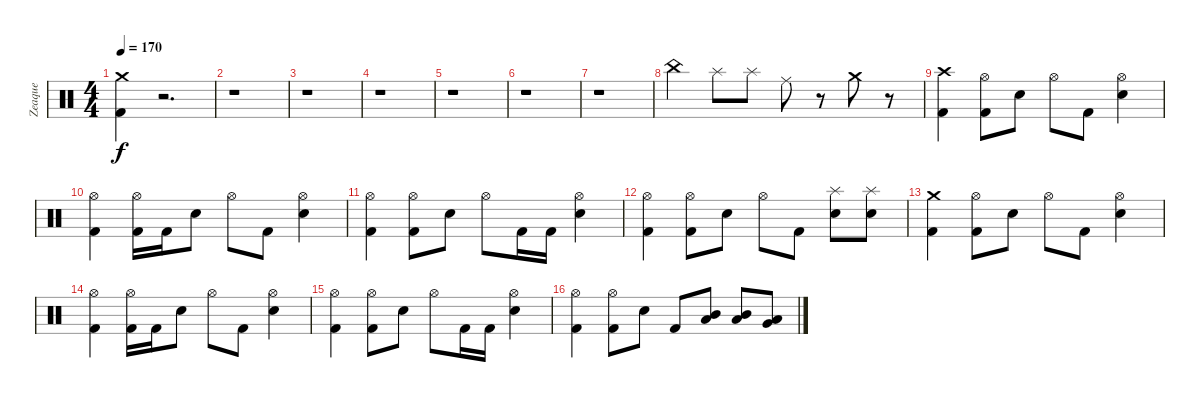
\track ("Zeaque" "Zeaque") {instrument percussion}
\staff {score}
\articulation defaults
\ts (4 4)
\tempo 170
\clef neutral
\ks c
("Crash medium (hit)" "Kick (hit) 2").4{dy f} r.2{d} |
r.1 |
r.1 |
r.1 |
r.1 |
r.1 |
r.1 |
"China (hit)".4 "Splash (hit)".8 "Splash (hit)".8 "Ride (middle)".8 r.8 "Crash medium (hit)".8 r.8 |
("Crash high (hit)" "Kick (hit) 2").4 ("Hi-Hat (open)" "Kick (hit) 2").8 "Electric Snare (hit)".8 "Hi-Hat (open)".8 "Kick (hit) 2".8 ("Hi-Hat (open)" "Electric Snare (hit)").4 |
("Hi-Hat (open)" "Kick (hit) 2").4 ("Hi-Hat (open)" "Kick (hit) 2").16 "Kick (hit) 2".16 "Electric Snare (hit)".8 "Hi-Hat (open)".8 "Kick (hit) 2".8 ("Hi-Hat (open)" "Electric Snare (hit)").4 |
("Hi-Hat (open)" "Kick (hit) 2").4 ("Hi-Hat (open)" "Kick (hit) 2").8 "Electric Snare (hit)".8 "Hi-Hat (open)".8 "Kick (hit) 2".16 "Kick (hit) 2".16 ("Hi-Hat (open)" "Electric Snare (hit)").4 |
("Hi-Hat (open)" "Kick (hit) 2").4 ("Hi-Hat (open)" "Kick (hit) 2").8 "Electric Snare (hit)".8 "Hi-Hat (open)".8 "Kick (hit) 2".8 ("Splash (hit)" "Electric Snare (hit)").8 ("Splash (hit)" "Electric Snare (hit)").8 |
("Crash medium (hit)" "Kick (hit) 2").4 ("Hi-Hat (open)" "Kick (hit) 2").8 "Electric Snare (hit)".8 "Hi-Hat (open)".8 "Kick (hit) 2".8 ("Hi-Hat (open)" "Electric Snare (hit)").4 |
("Hi-Hat (open)" "Kick (hit) 2").4 ("Hi-Hat (open)" "Kick (hit) 2").16 "Kick (hit) 2".16 "Electric Snare (hit)".8 "Hi-Hat (open)".8 "Kick (hit) 2".8 ("Hi-Hat (open)" "Electric Snare (hit)").4 |
("Hi-Hat (open)" "Kick (hit) 2").4 ("Hi-Hat (open)" "Kick (hit) 2").8 "Electric Snare (hit)".8 "Hi-Hat (open)".8 "Kick (hit) 2".16 "Kick (hit) 2".16 ("Hi-Hat (open)" "Electric Snare (hit)").4 |
("Hi-Hat (open)" "Kick (hit) 2").4 ("Hi-Hat (open)" "Kick (hit) 2").8 "Electric Snare (hit)".8 "Kick (hit) 2".8 ("Low Tom (hit)" "Mid Tom (hit)").8 ("Low Tom (hit)" "Mid Tom (hit)").8 ("Very Low Tom (hit)" "Low Tom (hit)").8
